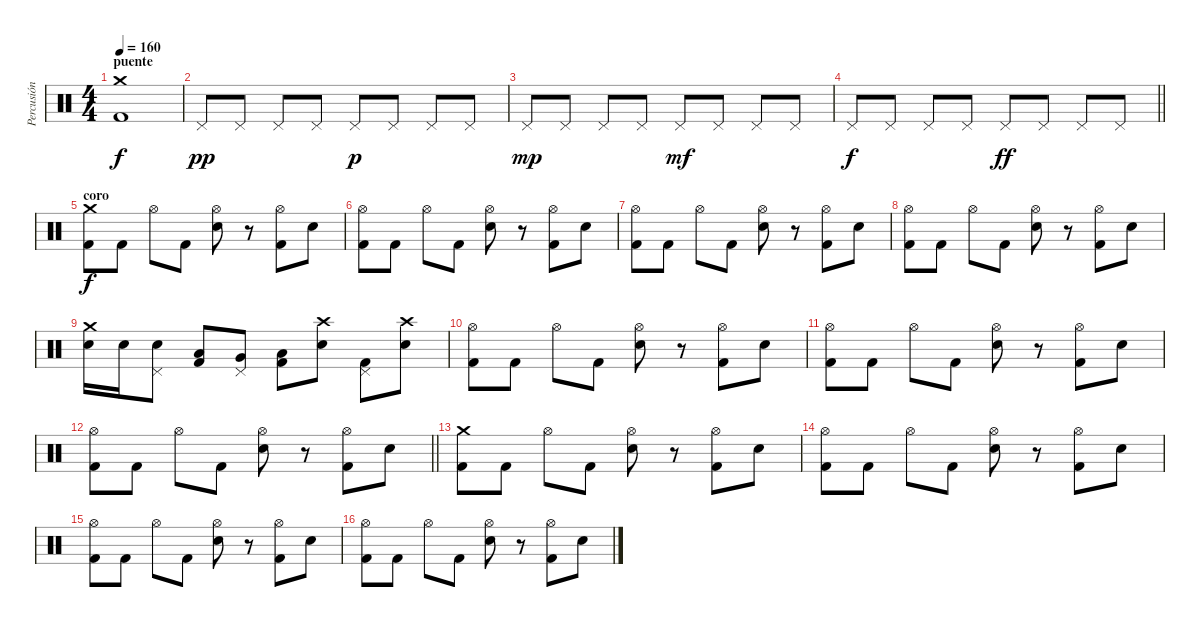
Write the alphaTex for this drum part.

\track ("Percusión" "Percusión") {instrument percussion}
\staff {score}
\articulation defaults
\ts (4 4)
\section ("" "puente")
\tempo 160
\clef neutral
\ks c
("Crash medium (hit)" "Kick (hit) 2").1{dy f} |
"Pedal Hi-Hat (hit)".8{dy pp} "Pedal Hi-Hat (hit)".8 "Pedal Hi-Hat (hit)".8 "Pedal Hi-Hat (hit)".8 "Pedal Hi-Hat (hit)".8{dy p} "Pedal Hi-Hat (hit)".8 "Pedal Hi-Hat (hit)".8 "Pedal Hi-Hat (hit)".8 |
"Pedal Hi-Hat (hit)".8{dy mp} "Pedal Hi-Hat (hit)".8 "Pedal Hi-Hat (hit)".8 "Pedal Hi-Hat (hit)".8 "Pedal Hi-Hat (hit)".8{dy mf} "Pedal Hi-Hat (hit)".8 "Pedal Hi-Hat (hit)".8 "Pedal Hi-Hat (hit)".8 |
\barLineRight lightlight "Pedal Hi-Hat (hit)".8{dy f} "Pedal Hi-Hat (hit)".8 "Pedal Hi-Hat (hit)".8 "Pedal Hi-Hat (hit)".8 "Pedal Hi-Hat (hit)".8{dy ff} "Pedal Hi-Hat (hit)".8 "Pedal Hi-Hat (hit)".8 "Pedal Hi-Hat (hit)".8
|
\section ("" "coro")
("Crash medium (hit)" "Kick (hit) 2").8{dy f} "Kick (hit) 2".8 "Hi-Hat (open)".8 "Kick (hit) 2".8 ("Hi-Hat (open)" "Snare (hit) 2").8 r.8 ("Hi-Hat (open)" "Kick (hit) 2").8 "Snare (hit) 2".8 |
("Hi-Hat (open)" "Kick (hit) 2").8 "Kick (hit) 2".8 "Hi-Hat (open)".8 "Kick (hit) 2".8 ("Hi-Hat (open)" "Snare (hit) 2").8 r.8 ("Hi-Hat (open)" "Kick (hit) 2").8 "Snare (hit) 2".8 |
("Hi-Hat (open)" "Kick (hit) 2").8 "Kick (hit) 2".8 "Hi-Hat (open)".8 "Kick (hit) 2".8 ("Hi-Hat (open)" "Snare (hit) 2").8 r.8 ("Hi-Hat (open)" "Kick (hit) 2").8 "Snare (hit) 2".8 |
("Hi-Hat (open)" "Kick (hit) 2").8 "Kick (hit) 2".8 "Hi-Hat (open)".8 "Kick (hit) 2".8 ("Hi-Hat (open)" "Snare (hit) 2").8 r.8 ("Hi-Hat (open)" "Kick (hit) 2").8 "Snare (hit) 2".8 |
("Crash medium (hit)" "Snare (hit) 2").16 "Snare (hit) 2".16 ("Pedal Hi-Hat (hit)" "Snare (hit) 2").8 ("Low Tom (hit)" "Kick (hit) 2").8 ("Pedal Hi-Hat (hit)" "Very Low Tom (hit)").8 ("Low Floor Tom (hit)" "Kick (hit) 2").8 ("Crash high (hit)" "Snare (hit) 2").8 ("Pedal Hi-Hat (hit)" "Kick (hit) 2").8 ("Crash high (hit)" "Snare (hit) 2").8 |
("Hi-Hat (open)" "Kick (hit) 2").8 "Kick (hit) 2".8 "Hi-Hat (open)".8 "Kick (hit) 2".8 ("Hi-Hat (open)" "Snare (hit) 2").8 r.8 ("Hi-Hat (open)" "Kick (hit) 2").8 "Snare (hit) 2".8 |
("Hi-Hat (open)" "Kick (hit) 2").8 "Kick (hit) 2".8 "Hi-Hat (open)".8 "Kick (hit) 2".8 ("Hi-Hat (open)" "Snare (hit) 2").8 r.8 ("Hi-Hat (open)" "Kick (hit) 2").8 "Snare (hit) 2".8 |
\barLineRight lightlight
("Hi-Hat (open)" "Kick (hit) 2").8 "Kick (hit) 2".8 "Hi-Hat (open)".8 "Kick (hit) 2".8 ("Hi-Hat (open)" "Snare (hit) 2").8 r.8 ("Hi-Hat (open)" "Kick (hit) 2").8 "Snare (hit) 2".8 |
("Crash medium (hit)" "Kick (hit) 2").8 "Kick (hit) 2".8 "Hi-Hat (open)".8 "Kick (hit) 2".8 ("Hi-Hat (open)" "Snare (hit) 2").8 r.8 ("Hi-Hat (open)" "Kick (hit) 2").8 "Snare (hit) 2".8 |
("Hi-Hat (open)" "Kick (hit) 2").8 "Kick (hit) 2".8 "Hi-Hat (open)".8 "Kick (hit) 2".8 ("Hi-Hat (open)" "Snare (hit) 2").8 r.8 ("Hi-Hat (open)" "Kick (hit) 2").8 "Snare (hit) 2".8 |
("Hi-Hat (open)" "Kick (hit) 2").8 "Kick (hit) 2".8 "Hi-Hat (open)".8 "Kick (hit) 2".8 ("Hi-Hat (open)" "Snare (hit) 2").8 r.8 ("Hi-Hat (open)" "Kick (hit) 2").8 "Snare (hit) 2".8 |
("Hi-Hat (open)" "Kick (hit) 2").8 "Kick (hit) 2".8 "Hi-Hat (open)".8 "Kick (hit) 2".8 ("Hi-Hat (open)" "Snare (hit) 2").8 r.8 ("Hi-Hat (open)" "Kick (hit) 2").8 "Snare (hit) 2".8
